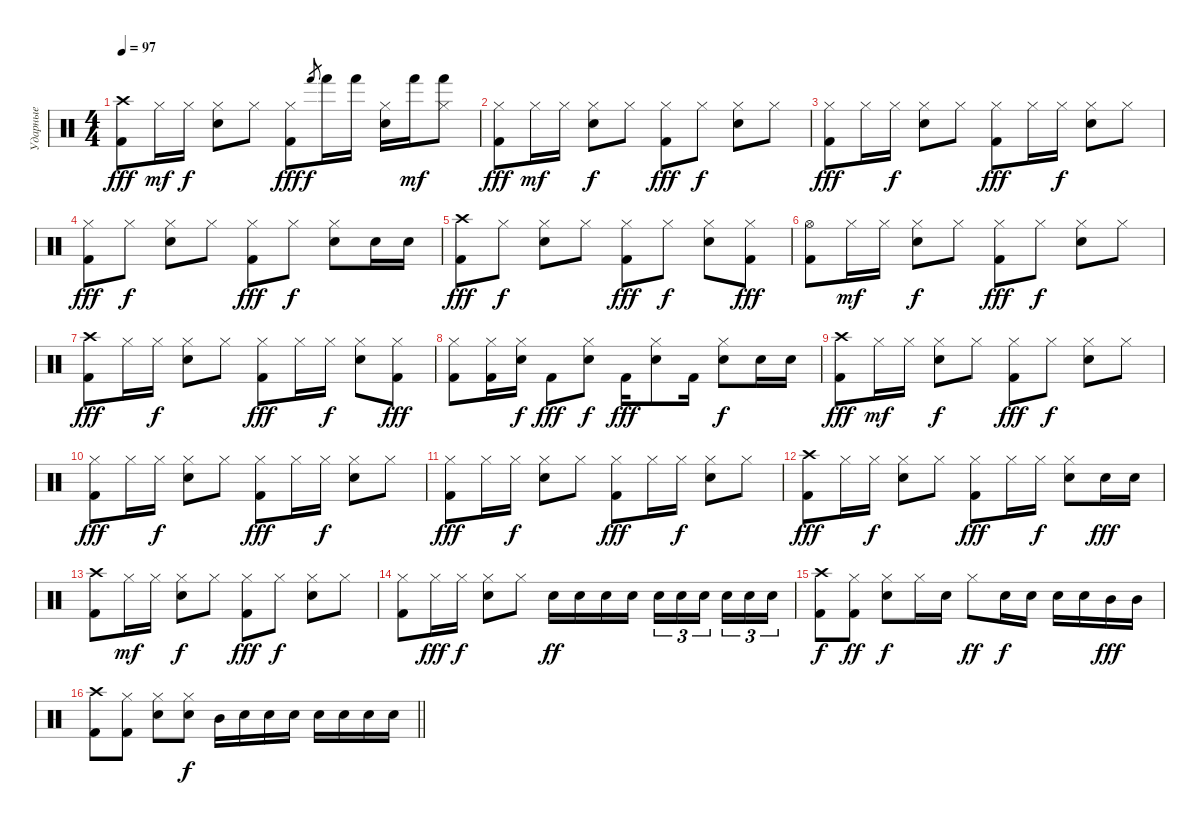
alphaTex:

\track ("Ударные" "Ударные") {instrument percussion}
\staff {score}
\articulation defaults
\ts (4 4)
\tempo 97
\clef neutral
\ks c
("Kick (hit) 2" "Crash high (hit)").8{dy fff} "Hi-Hat (closed)".16{dy mf} "Hi-Hat (closed)".16{dy f} ("Snare (hit) 2" "Hi-Hat (closed)").8 "Hi-Hat (closed)".8 ("Kick (hit) 2" "Hi-Hat (closed)").8{dy fff} "Hand (hit)".8{gr dy f} "Hand (hit)".16 "Hand (hit)".16 ("Snare (hit) 2" "Hi-Hat (closed)").16 "Hand (hit)".16{dy mf} ("Hand (hit)" "Hi-Hat (closed)").8 |
("Kick (hit) 2" "Hi-Hat (closed)").8{dy fff} "Hi-Hat (closed)".16{dy mf} "Hi-Hat (closed)".16 ("Snare (hit) 2" "Hi-Hat (closed)").8{dy f} "Hi-Hat (closed)".8 ("Kick (hit) 2" "Hi-Hat (closed)").8{dy fff} "Hi-Hat (closed)".8{dy f} ("Snare (hit) 2" "Hi-Hat (closed)").8 "Hi-Hat (closed)".8 |
("Kick (hit) 2" "Hi-Hat (closed)").8{dy fff} "Hi-Hat (closed)".16 "Hi-Hat (closed)".16{dy f} ("Snare (hit) 2" "Hi-Hat (closed)").8 "Hi-Hat (closed)".8 ("Kick (hit) 2" "Hi-Hat (closed)").8{dy fff} "Hi-Hat (closed)".16 "Hi-Hat (closed)".16{dy f} ("Snare (hit) 2" "Hi-Hat (closed)").8 "Hi-Hat (closed)".8 |
("Kick (hit) 2" "Hi-Hat (closed)").8{dy fff} "Hi-Hat (closed)".8{dy f} ("Snare (hit) 2" "Hi-Hat (closed)").8 "Hi-Hat (closed)".8 ("Kick (hit) 2" "Hi-Hat (closed)").8{dy fff} "Hi-Hat (closed)".8{dy f} ("Snare (hit) 2" "Hi-Hat (closed)").8 "Snare (hit) 2".16 "Snare (hit) 2".16 |
("Kick (hit) 2" "Crash high (hit)").8{dy fff} "Hi-Hat (closed)".8{dy f} ("Snare (hit) 2" "Hi-Hat (closed)").8 "Hi-Hat (closed)".8 ("Kick (hit) 2" "Hi-Hat (closed)").8{dy fff} "Hi-Hat (closed)".8{dy f} ("Snare (hit) 2" "Hi-Hat (closed)").8 ("Kick (hit) 2" "Hi-Hat (closed)").8{dy fff} |
("Kick (hit) 2" "Hi-Hat (open)").8 "Hi-Hat (closed)".16{dy mf} "Hi-Hat (closed)".16 ("Snare (hit) 2" "Hi-Hat (closed)").8{dy f} "Hi-Hat (closed)".8 ("Kick (hit) 2" "Hi-Hat (closed)").8{dy fff} "Hi-Hat (closed)".8{dy f} ("Snare (hit) 2" "Hi-Hat (closed)").8 "Hi-Hat (closed)".8 |
("Kick (hit) 2" "Crash high (hit)").8{dy fff} "Hi-Hat (closed)".16 "Hi-Hat (closed)".16{dy f} ("Snare (hit) 2" "Hi-Hat (closed)").8 "Hi-Hat (closed)".8 ("Kick (hit) 2" "Hi-Hat (closed)").8{dy fff} "Hi-Hat (closed)".16 "Hi-Hat (closed)".16{dy f} ("Snare (hit) 2" "Hi-Hat (closed)").8 ("Kick (hit) 2" "Hi-Hat (closed)").8{dy fff} |
("Kick (hit) 2" "Hi-Hat (closed)").8 ("Kick (hit) 2" "Hi-Hat (closed)").16 ("Snare (hit) 2" "Hi-Hat (closed)").16{dy f} "Kick (hit) 2".8{dy fff} ("Snare (hit) 2" "Hi-Hat (closed)").8{dy f} "Kick (hit) 2".16{dy fff} ("Snare (hit) 2" "Hi-Hat (closed)").8 "Kick (hit) 2".16 ("Snare (hit) 2" "Hi-Hat (closed)").8{dy f} "Snare (hit) 2".16 "Snare (hit) 2".16 |
("Kick (hit) 2" "Crash high (hit)").8{dy fff} "Hi-Hat (closed)".16{dy mf} "Hi-Hat (closed)".16 ("Snare (hit) 2" "Hi-Hat (closed)").8{dy f} "Hi-Hat (closed)".8 ("Kick (hit) 2" "Hi-Hat (closed)").8{dy fff} "Hi-Hat (closed)".8{dy f} ("Snare (hit) 2" "Hi-Hat (closed)").8 "Hi-Hat (closed)".8 |
("Kick (hit) 2" "Hi-Hat (closed)").8{dy fff} "Hi-Hat (closed)".16 "Hi-Hat (closed)".16{dy f} ("Snare (hit) 2" "Hi-Hat (closed)").8 "Hi-Hat (closed)".8 ("Kick (hit) 2" "Hi-Hat (closed)").8{dy fff} "Hi-Hat (closed)".16 "Hi-Hat (closed)".16{dy f} ("Snare (hit) 2" "Hi-Hat (closed)").8 "Hi-Hat (closed)".8 |
("Kick (hit) 2" "Hi-Hat (closed)").8{dy fff} "Hi-Hat (closed)".16 "Hi-Hat (closed)".16{dy f} ("Snare (hit) 2" "Hi-Hat (closed)").8 "Hi-Hat (closed)".8 ("Kick (hit) 2" "Hi-Hat (closed)").8{dy fff} "Hi-Hat (closed)".16 "Hi-Hat (closed)".16{dy f} ("Snare (hit) 2" "Hi-Hat (closed)").8 "Hi-Hat (closed)".8 |
("Kick (hit) 2" "Crash high (hit)").8{dy fff} "Hi-Hat (closed)".16 "Hi-Hat (closed)".16{dy f} ("Snare (hit) 2" "Hi-Hat (closed)").8 "Hi-Hat (closed)".8 ("Kick (hit) 2" "Hi-Hat (closed)").8{dy fff} "Hi-Hat (closed)".16 "Hi-Hat (closed)".16{dy f} ("Snare (hit) 2" "Hi-Hat (closed)").8 "Electric Snare (hit)".16{dy fff} "Electric Snare (hit)".16 |
("Kick (hit) 2" "Crash high (hit)").8 "Hi-Hat (closed)".16{dy mf} "Hi-Hat (closed)".16 ("Snare (hit) 2" "Hi-Hat (closed)").8{dy f} "Hi-Hat (closed)".8 ("Kick (hit) 2" "Hi-Hat (closed)").8{dy fff} "Hi-Hat (closed)".8{dy f} ("Snare (hit) 2" "Hi-Hat (closed)").8 "Hi-Hat (closed)".8 |
("Kick (hit) 2" "Hi-Hat (closed)").8 "Hi-Hat (closed)".16{dy fff} "Hi-Hat (closed)".16{dy f} ("Snare (hit) 2" "Hi-Hat (closed)").8 "Hi-Hat (closed)".8 "Electric Snare (hit)".16{dy ff} "Electric Snare (hit)".16 "Electric Snare (hit)".16 "Electric Snare (hit)".16 "Electric Snare (hit)".16{tu (3 2)} "Electric Snare (hit)".16{tu (3 2)} "Electric Snare (hit)".16{tu (3 2) beam splitsecondary} "Electric Snare (hit)".16{tu (3 2)} "Electric Snare (hit)".16{tu (3 2)} "Electric Snare (hit)".16{tu (3 2)} |
("Kick (hit) 2" "Crash high (hit)").8{dy f} ("Kick (hit) 2" "Hi-Hat (closed)").8{dy ff} ("Snare (hit) 2" "Hi-Hat (closed)").8{dy f} "Hi-Hat (closed)".16 "Snare (hit) 2".16 "Hi-Hat (closed)".8{dy ff} "Snare (hit) 2".16{dy f} "Snare (hit) 2".16 "Snare (hit) 2".16 "Snare (hit) 2".16 "Mid Tom (hit)".16{dy fff} "Mid Tom (hit)".16 |
\barLineRight lightlight
("Kick (hit) 2" "Crash high (hit)").8 ("Kick (hit) 2" "Hi-Hat (closed)").8 ("Snare (hit) 2" "Hi-Hat (closed)").8 ("Snare (hit) 2" "Hi-Hat (closed)").8{dy f} "Mid Tom (hit)".16 "Snare (hit) 2".16 "Snare (hit) 2".16 "Snare (hit) 2".16 "Snare (hit) 2".16 "Snare (hit) 2".16 "Snare (hit) 2".16 "Snare (hit) 2".16
